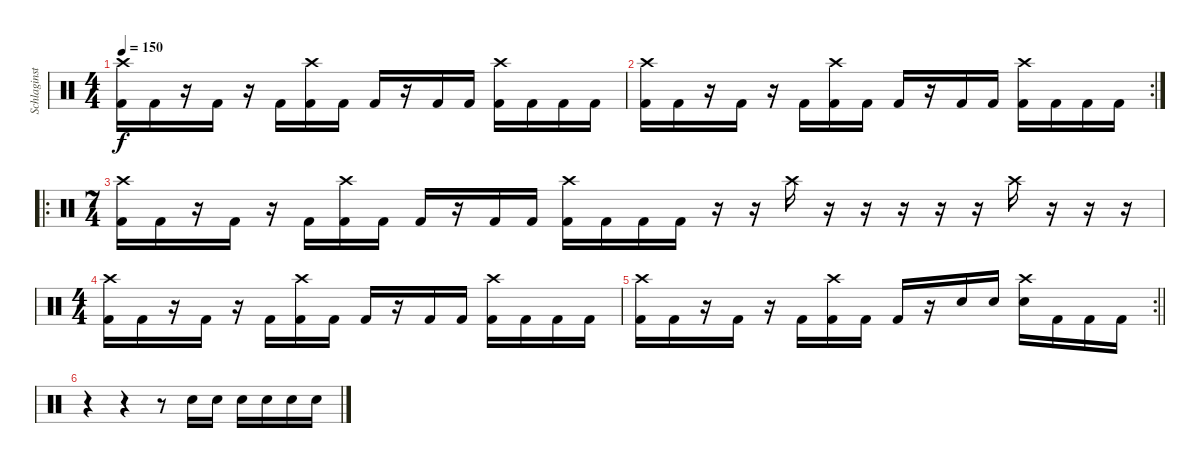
\track ("Schlaginstrumente - Auswahl" "Schlaginst") {instrument percussion}
\staff {score}
\articulation defaults
\ts (4 4)
\tempo 150
\clef neutral
\ks c
("Crash high (hit)" "Kick (hit) 2").16{dy f} "Kick (hit) 2".16 r.16 "Kick (hit) 2".16 r.16 "Kick (hit) 2".16 ("Crash high (hit)" "Kick (hit) 2").16 "Kick (hit) 2".16 "Kick (hit) 2".16 r.16 "Kick (hit) 2".16 "Kick (hit) 2".16 ("Crash high (hit)" "Kick (hit) 2").16 "Kick (hit) 2".16 "Kick (hit) 2".16 "Kick (hit) 2".16 |
\rc 2
("Crash high (hit)" "Kick (hit) 2").16 "Kick (hit) 2".16 r.16 "Kick (hit) 2".16 r.16 "Kick (hit) 2".16 ("Crash high (hit)" "Kick (hit) 2").16 "Kick (hit) 2".16 "Kick (hit) 2".16 r.16 "Kick (hit) 2".16 "Kick (hit) 2".16 ("Crash high (hit)" "Kick (hit) 2").16 "Kick (hit) 2".16 "Kick (hit) 2".16 "Kick (hit) 2".16 |
\ro
\ts (7 4)
("Crash high (hit)" "Kick (hit) 2").16 "Kick (hit) 2".16 r.16 "Kick (hit) 2".16 r.16 "Kick (hit) 2".16 ("Crash high (hit)" "Kick (hit) 2").16 "Kick (hit) 2".16 "Kick (hit) 2".16 r.16 "Kick (hit) 2".16 "Kick (hit) 2".16 ("Crash high (hit)" "Kick (hit) 2").16 "Kick (hit) 2".16 "Kick (hit) 2".16 "Kick (hit) 2".16 r.16 r.16 "Crash high (hit)".16 r.16 r.16 r.16 r.16 r.16 "Crash high (hit)".16 r.16 r.16 r.16 |
\ts (4 4)
("Crash high (hit)" "Kick (hit) 2").16 "Kick (hit) 2".16 r.16 "Kick (hit) 2".16 r.16 "Kick (hit) 2".16 ("Crash high (hit)" "Kick (hit) 2").16 "Kick (hit) 2".16 "Kick (hit) 2".16 r.16 "Kick (hit) 2".16 "Kick (hit) 2".16 ("Crash high (hit)" "Kick (hit) 2").16 "Kick (hit) 2".16 "Kick (hit) 2".16 "Kick (hit) 2".16 |
\rc 2
\barLineRight lightlight
("Crash high (hit)" "Kick (hit) 2").16 "Kick (hit) 2".16 r.16 "Kick (hit) 2".16 r.16 "Kick (hit) 2".16 ("Crash high (hit)" "Kick (hit) 2").16 "Kick (hit) 2".16 "Kick (hit) 2".16 r.16 "Snare (hit) 2".16 "Snare (hit) 2".16 ("Crash high (hit)" "Snare (hit) 2").16 "Kick (hit) 2".16 "Kick (hit) 2".16 "Kick (hit) 2".16 |
r.4 r.4 r.8 "Snare (hit) 2".16 "Snare (hit) 2".16 "Snare (hit) 2".16 "Snare (hit) 2".16 "Snare (hit) 2".16 "Snare (hit) 2".16
